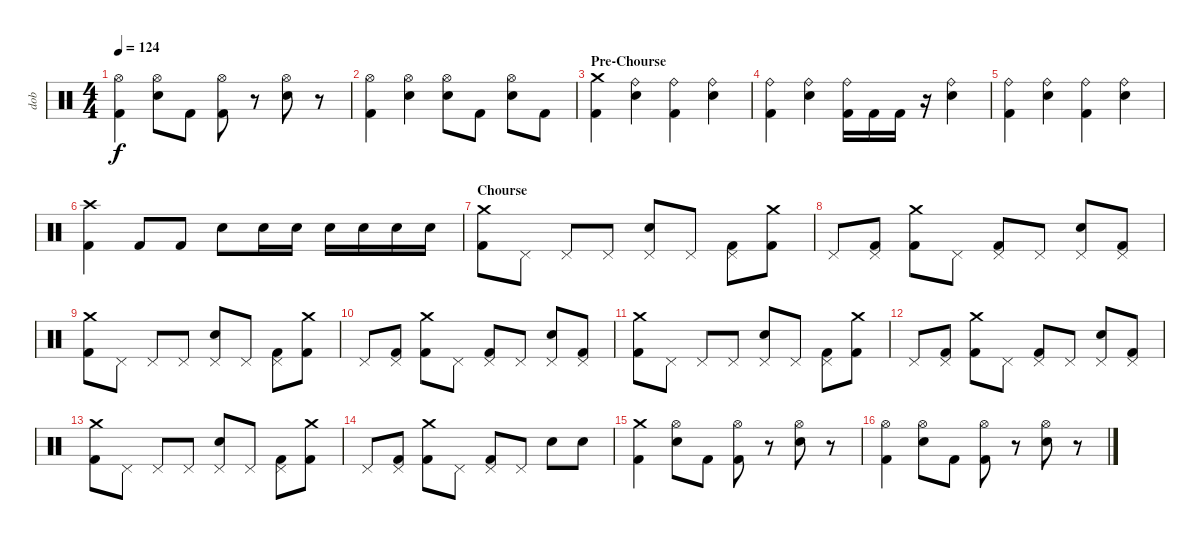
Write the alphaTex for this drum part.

\track ("dob" "dob") {instrument percussion}
\staff {score}
\articulation defaults
\ts (4 4)
\tempo 124
\clef neutral
\ks c
("Hi-Hat (open)" "Kick (hit) 2").4{dy f} ("Hi-Hat (open)" "Electric Snare (hit)").8 "Kick (hit) 2".8 ("Hi-Hat (open)" "Kick (hit) 2").8 r.8 ("Hi-Hat (open)" "Electric Snare (hit)").8 r.8 |
("Hi-Hat (open)" "Kick (hit) 2").4 ("Hi-Hat (open)" "Electric Snare (hit)").4 ("Hi-Hat (open)" "Electric Snare (hit)").8 "Kick (hit) 2".8 ("Hi-Hat (open)" "Electric Snare (hit)").8 "Kick (hit) 2".8 |
\section ("" "Pre-Chourse")
("Crash medium (hit)" "Kick (hit) 2").4 ("Ride (bell)" "Electric Snare (hit)").4 ("Ride (bell)" "Kick (hit) 2").4 ("Ride (bell)" "Electric Snare (hit)").4 |
("Ride (bell)" "Kick (hit) 2").4 ("Ride (bell)" "Electric Snare (hit)").4 ("Ride (bell)" "Kick (hit) 2").16 "Kick (hit) 2".16 "Kick (hit) 2".16 r.16 ("Ride (bell)" "Electric Snare (hit)").4 |
("Ride (bell)" "Kick (hit) 2").4 ("Ride (bell)" "Electric Snare (hit)").4 ("Ride (bell)" "Kick (hit) 2").4 ("Ride (bell)" "Electric Snare (hit)").4 |
("Crash high (hit)" "Kick (hit) 2").4 "Kick (hit) 2".8 "Kick (hit) 2".8 "Electric Snare (hit)".8 "Electric Snare (hit)".16 "Electric Snare (hit)".16 "Electric Snare (hit)".16 "Electric Snare (hit)".16 "Electric Snare (hit)".16 "Electric Snare (hit)".16 |
\section ("" "Chourse")
("Crash medium (hit)" "Kick (hit) 2").8 "Pedal Hi-Hat (hit)".8 "Pedal Hi-Hat (hit)".8 "Pedal Hi-Hat (hit)".8 ("Pedal Hi-Hat (hit)" "Electric Snare (hit)").8 "Pedal Hi-Hat (hit)".8 ("Pedal Hi-Hat (hit)" "Kick (hit) 2").8 ("Crash medium (hit)" "Kick (hit) 2").8 |
"Pedal Hi-Hat (hit)".8 ("Pedal Hi-Hat (hit)" "Kick (hit) 2").8 ("Crash medium (hit)" "Kick (hit) 2").8 "Pedal Hi-Hat (hit)".8 ("Pedal Hi-Hat (hit)" "Kick (hit) 2").8 "Pedal Hi-Hat (hit)".8 ("Pedal Hi-Hat (hit)" "Electric Snare (hit)").8 ("Pedal Hi-Hat (hit)" "Kick (hit) 2").8 |
("Crash medium (hit)" "Kick (hit) 2").8 "Pedal Hi-Hat (hit)".8 "Pedal Hi-Hat (hit)".8 "Pedal Hi-Hat (hit)".8 ("Pedal Hi-Hat (hit)" "Electric Snare (hit)").8 "Pedal Hi-Hat (hit)".8 ("Pedal Hi-Hat (hit)" "Kick (hit) 2").8 ("Crash medium (hit)" "Kick (hit) 2").8 |
"Pedal Hi-Hat (hit)".8 ("Pedal Hi-Hat (hit)" "Kick (hit) 2").8 ("Crash medium (hit)" "Kick (hit) 2").8 "Pedal Hi-Hat (hit)".8 ("Pedal Hi-Hat (hit)" "Kick (hit) 2").8 "Pedal Hi-Hat (hit)".8 ("Pedal Hi-Hat (hit)" "Electric Snare (hit)").8 ("Pedal Hi-Hat (hit)" "Kick (hit) 2").8 |
("Crash medium (hit)" "Kick (hit) 2").8 "Pedal Hi-Hat (hit)".8 "Pedal Hi-Hat (hit)".8 "Pedal Hi-Hat (hit)".8 ("Pedal Hi-Hat (hit)" "Electric Snare (hit)").8 "Pedal Hi-Hat (hit)".8 ("Pedal Hi-Hat (hit)" "Kick (hit) 2").8 ("Crash medium (hit)" "Kick (hit) 2").8 |
"Pedal Hi-Hat (hit)".8 ("Pedal Hi-Hat (hit)" "Kick (hit) 2").8 ("Crash medium (hit)" "Kick (hit) 2").8 "Pedal Hi-Hat (hit)".8 ("Pedal Hi-Hat (hit)" "Kick (hit) 2").8 "Pedal Hi-Hat (hit)".8 ("Pedal Hi-Hat (hit)" "Electric Snare (hit)").8 ("Pedal Hi-Hat (hit)" "Kick (hit) 2").8 |
("Crash medium (hit)" "Kick (hit) 2").8 "Pedal Hi-Hat (hit)".8 "Pedal Hi-Hat (hit)".8 "Pedal Hi-Hat (hit)".8 ("Pedal Hi-Hat (hit)" "Electric Snare (hit)").8 "Pedal Hi-Hat (hit)".8 ("Pedal Hi-Hat (hit)" "Kick (hit) 2").8 ("Crash medium (hit)" "Kick (hit) 2").8 |
"Pedal Hi-Hat (hit)".8 ("Pedal Hi-Hat (hit)" "Kick (hit) 2").8 ("Crash medium (hit)" "Kick (hit) 2").8 "Pedal Hi-Hat (hit)".8 ("Pedal Hi-Hat (hit)" "Kick (hit) 2").8 "Pedal Hi-Hat (hit)".8 "Electric Snare (hit)".8 "Electric Snare (hit)".8 |
("Crash medium (hit)" "Kick (hit) 2").4 ("Hi-Hat (open)" "Electric Snare (hit)").8 "Kick (hit) 2".8 ("Hi-Hat (open)" "Kick (hit) 2").8 r.8 ("Hi-Hat (open)" "Electric Snare (hit)").8 r.8 |
("Hi-Hat (open)" "Kick (hit) 2").4 ("Hi-Hat (open)" "Electric Snare (hit)").8 "Kick (hit) 2".8 ("Hi-Hat (open)" "Kick (hit) 2").8 r.8 ("Hi-Hat (open)" "Electric Snare (hit)").8 r.8
